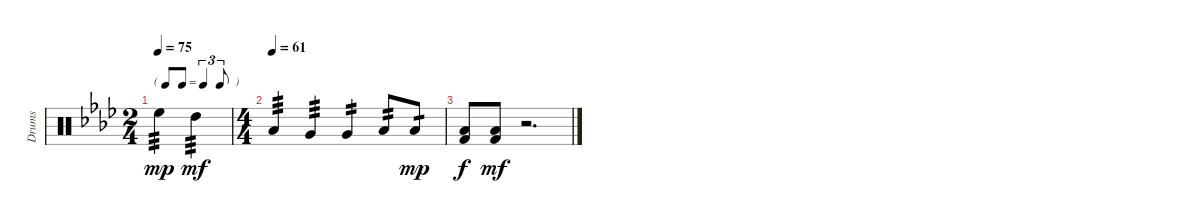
\track ("Drums" "Drums") {instrument percussion}
\staff {score}
\articulation defaults
\ts (2 4)
\tf triplet8th
\tempo 75
\clef neutral
\ks ab "High Floor Tom (hit)".4{tp 3 dy mp} "High Tom (hit)".4{tp 3 dy mf}
|
\ts (4 4)
\tempo (61)
"Low Tom (hit)".4{tp 3} "Very Low Tom (hit)".4{tp 3} "Very Low Tom (hit)".4{tp 2} "Low Floor Tom (hit)".8{tp 2} "Low Floor Tom (hit)".8{tp 1 dy mp} |
("Low Floor Tom (hit)" "Kick (hit) 2").8{dy f} ("Low Floor Tom (hit)" "Kick (hit) 2").8{dy mf} r.2{d}
